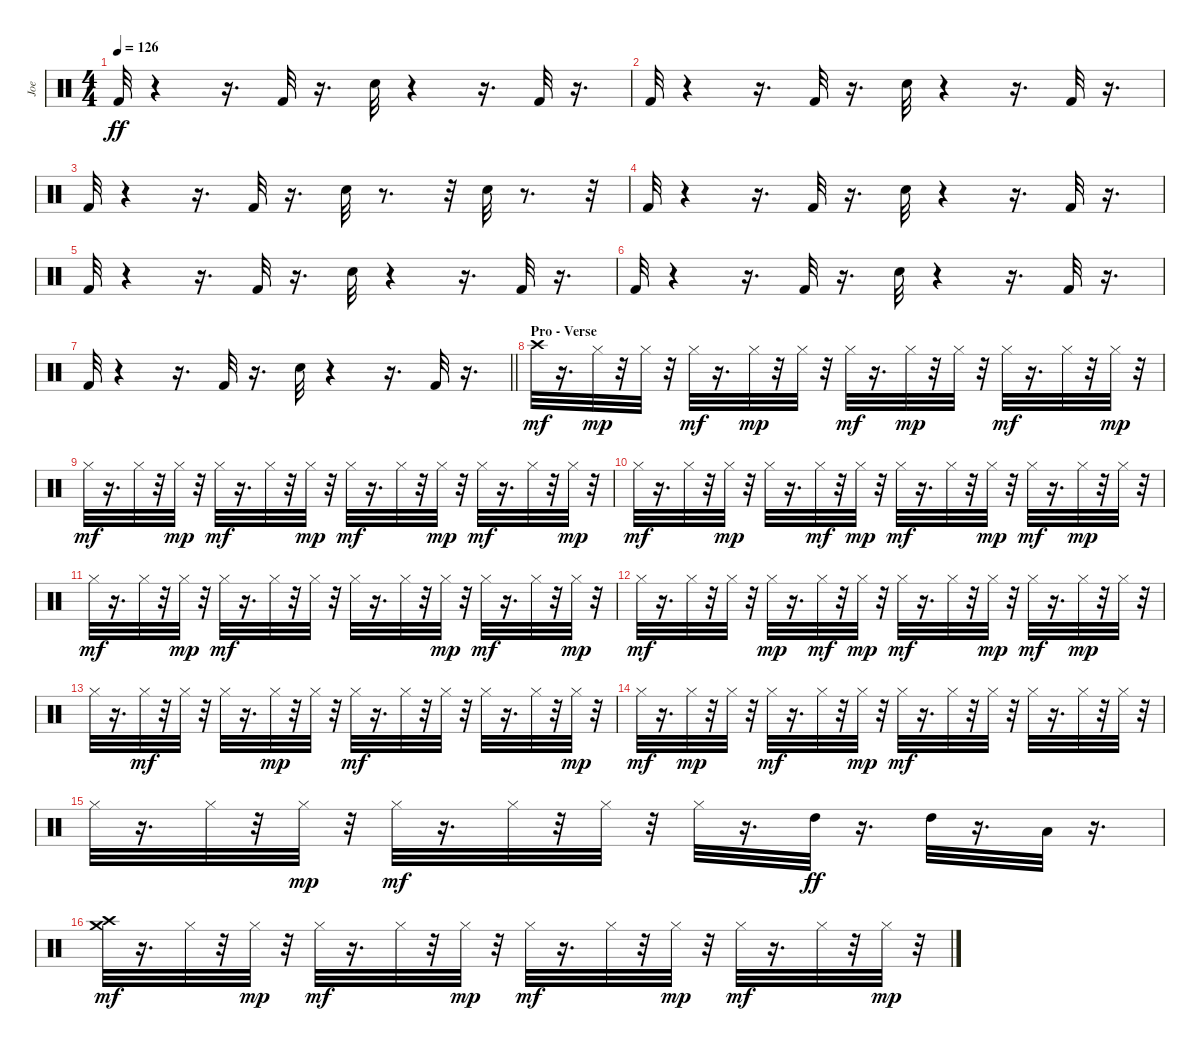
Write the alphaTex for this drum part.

\track ("Joe" "Joe") {instrument percussion}
\staff {score}
\articulation defaults
\ts (4 4)
\tempo 126
\clef neutral
\ks c "Kick (hit) 2".32{dy ff}
r.4 r.16{d} "Kick (hit) 2".32 r.16{d} "Electric Snare (hit)".32 r.4 r.16{d} "Kick (hit) 2".32 r.16{d} |
"Kick (hit) 2".32 r.4 r.16{d} "Kick (hit) 2".32 r.16{d} "Electric Snare (hit)".32 r.4 r.16{d} "Kick (hit) 2".32 r.16{d} |
"Kick (hit) 2".32 r.4 r.16{d} "Kick (hit) 2".32 r.16{d} "Electric Snare (hit)".32 r.8{d} r.32 "Electric Snare (hit)".32 r.8{d} r.32 |
"Kick (hit) 2".32 r.4 r.16{d} "Kick (hit) 2".32 r.16{d} "Electric Snare (hit)".32 r.4 r.16{d} "Kick (hit) 2".32 r.16{d} |
"Kick (hit) 2".32 r.4 r.16{d} "Kick (hit) 2".32 r.16{d} "Electric Snare (hit)".32 r.4 r.16{d} "Kick (hit) 2".32 r.16{d} |
"Kick (hit) 2".32 r.4 r.16{d} "Kick (hit) 2".32 r.16{d} "Electric Snare (hit)".32 r.4 r.16{d} "Kick (hit) 2".32 r.16{d} |
\barLineRight lightlight "Kick (hit) 2".32
r.4 r.16{d} "Kick (hit) 2".32 r.16{d} "Electric Snare (hit)".32 r.4 r.16{d} "Kick (hit) 2".32 r.16{d} |
\section ("" "Pro - Verse")
"Crash high (hit)".32{dy mf} r.16{d} "Hi-Hat (closed)".32{dy mp} r.32 "Hi-Hat (closed)".32 r.32 "Hi-Hat (closed)".32{dy mf} r.16{d} "Hi-Hat (closed)".32{dy mp} r.32 "Hi-Hat (closed)".32 r.32 "Hi-Hat (closed)".32{dy mf} r.16{d} "Hi-Hat (closed)".32{dy mp} r.32 "Hi-Hat (closed)".32 r.32 "Hi-Hat (closed)".32{dy mf} r.16{d} "Hi-Hat (closed)".32 r.32 "Hi-Hat (closed)".32{dy mp} r.32 |
"Hi-Hat (closed)".32{dy mf} r.16{d} "Hi-Hat (closed)".32 r.32 "Hi-Hat (closed)".32{dy mp} r.32 "Hi-Hat (closed)".32{dy mf} r.16{d} "Hi-Hat (closed)".32 r.32 "Hi-Hat (closed)".32{dy mp} r.32 "Hi-Hat (closed)".32{dy mf} r.16{d} "Hi-Hat (closed)".32 r.32 "Hi-Hat (closed)".32{dy mp} r.32 "Hi-Hat (closed)".32{dy mf} r.16{d} "Hi-Hat (closed)".32 r.32 "Hi-Hat (closed)".32{dy mp} r.32 |
"Hi-Hat (closed)".32{dy mf} r.16{d} "Hi-Hat (closed)".32 r.32 "Hi-Hat (closed)".32{dy mp} r.32 "Hi-Hat (closed)".32 r.16{d} "Hi-Hat (closed)".32{dy mf} r.32 "Hi-Hat (closed)".32{dy mp} r.32 "Hi-Hat (closed)".32{dy mf} r.16{d} "Hi-Hat (closed)".32 r.32 "Hi-Hat (closed)".32{dy mp} r.32 "Hi-Hat (closed)".32{dy mf} r.16{d} "Hi-Hat (closed)".32{dy mp} r.32 "Hi-Hat (closed)".32 r.32 |
"Hi-Hat (closed)".32{dy mf} r.16{d} "Hi-Hat (closed)".32 r.32 "Hi-Hat (closed)".32{dy mp} r.32 "Hi-Hat (closed)".32{dy mf} r.16{d} "Hi-Hat (closed)".32 r.32 "Hi-Hat (closed)".32 r.32 "Hi-Hat (closed)".32 r.16{d} "Hi-Hat (closed)".32 r.32 "Hi-Hat (closed)".32{dy mp} r.32 "Hi-Hat (closed)".32{dy mf} r.16{d} "Hi-Hat (closed)".32 r.32 "Hi-Hat (closed)".32{dy mp} r.32 |
"Hi-Hat (closed)".32{dy mf} r.16{d} "Hi-Hat (closed)".32 r.32 "Hi-Hat (closed)".32 r.32 "Hi-Hat (closed)".32{dy mp} r.16{d} "Hi-Hat (closed)".32{dy mf} r.32 "Hi-Hat (closed)".32{dy mp} r.32 "Hi-Hat (closed)".32{dy mf} r.16{d} "Hi-Hat (closed)".32 r.32 "Hi-Hat (closed)".32{dy mp} r.32 "Hi-Hat (closed)".32{dy mf} r.16{d} "Hi-Hat (closed)".32{dy mp} r.32 "Hi-Hat (closed)".32 r.32 |
"Hi-Hat (closed)".32 r.16{d} "Hi-Hat (closed)".32{dy mf} r.32 "Hi-Hat (closed)".32 r.32 "Hi-Hat (closed)".32 r.16{d} "Hi-Hat (closed)".32{dy mp} r.32 "Hi-Hat (closed)".32 r.32 "Hi-Hat (closed)".32{dy mf} r.16{d} "Hi-Hat (closed)".32 r.32 "Hi-Hat (closed)".32 r.32 "Hi-Hat (closed)".32 r.16{d} "Hi-Hat (closed)".32 r.32 "Hi-Hat (closed)".32{dy mp} r.32 |
"Hi-Hat (closed)".32{dy mf} r.16{d} "Hi-Hat (closed)".32{dy mp} r.32 "Hi-Hat (closed)".32 r.32 "Hi-Hat (closed)".32{dy mf} r.16{d} "Hi-Hat (closed)".32 r.32 "Hi-Hat (closed)".32{dy mp} r.32 "Hi-Hat (closed)".32{dy mf} r.16{d} "Hi-Hat (closed)".32 r.32 "Hi-Hat (closed)".32 r.32 "Hi-Hat (closed)".32 r.16{d} "Hi-Hat (closed)".32 r.32 "Hi-Hat (closed)".32 r.32 |
"Hi-Hat (closed)".32 r.16{d} "Hi-Hat (closed)".32 r.32 "Hi-Hat (closed)".32{dy mp} r.32 "Hi-Hat (closed)".32{dy mf} r.16{d} "Hi-Hat (closed)".32 r.32 "Hi-Hat (closed)".32 r.32 "Hi-Hat (closed)".32 r.16{d} "High Tom (hit)".32{dy ff} r.16{d} "High Tom (hit)".32 r.16{d} "Low Tom (hit)".32 r.16{d} |
("Crash medium (hit)" "Crash high (hit)").32{dy mf} r.16{d} "Hi-Hat (closed)".32 r.32 "Hi-Hat (closed)".32{dy mp} r.32 "Hi-Hat (closed)".32{dy mf} r.16{d} "Hi-Hat (closed)".32 r.32 "Hi-Hat (closed)".32{dy mp} r.32 "Hi-Hat (closed)".32{dy mf} r.16{d} "Hi-Hat (closed)".32 r.32 "Hi-Hat (closed)".32{dy mp} r.32 "Hi-Hat (closed)".32{dy mf} r.16{d} "Hi-Hat (closed)".32 r.32 "Hi-Hat (closed)".32{dy mp} r.32
